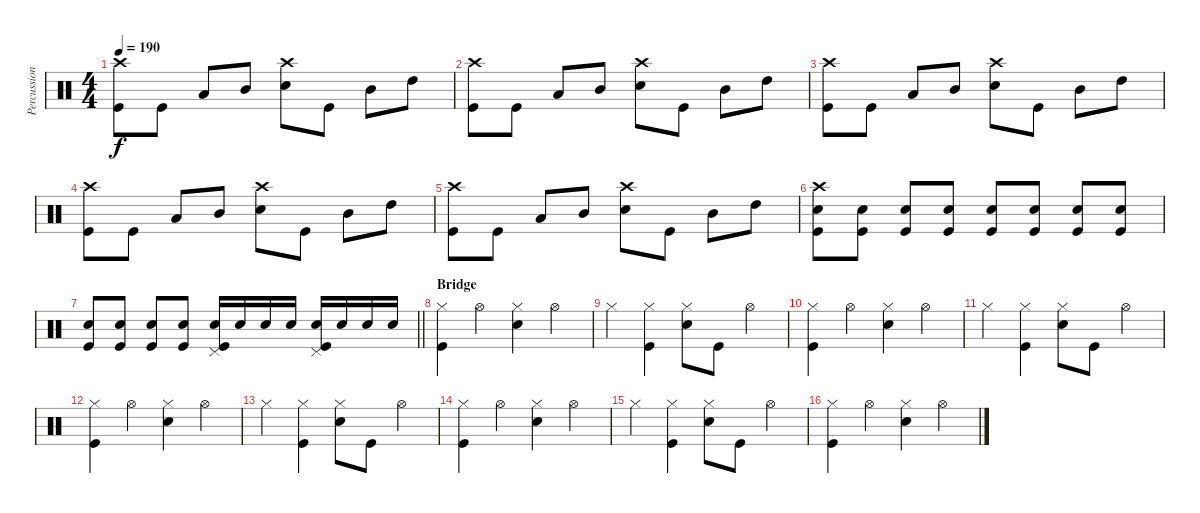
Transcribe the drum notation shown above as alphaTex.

\track ("Percussion" "Percussion") {instrument percussion}
\staff {score}
\articulation defaults
\ts (4 4)
\tempo 190
\clef neutral
\ks c
("Crash high (hit)" "Kick (hit)").8{dy f} "Kick (hit)".8 "Low Tom (hit)".8 "Mid Tom (hit)".8 ("Crash high (hit)" "Snare (hit) 2").8 "Kick (hit)".8 "Mid Tom (hit)".8 "High Tom (hit)".8 |
("Crash high (hit)" "Kick (hit)").8 "Kick (hit)".8 "Low Tom (hit)".8 "Mid Tom (hit)".8 ("Crash high (hit)" "Snare (hit) 2").8 "Kick (hit)".8 "Mid Tom (hit)".8 "High Tom (hit)".8 |
("Crash high (hit)" "Kick (hit)").8 "Kick (hit)".8 "Low Tom (hit)".8 "Mid Tom (hit)".8 ("Crash high (hit)" "Snare (hit) 2").8 "Kick (hit)".8 "Mid Tom (hit)".8 "High Tom (hit)".8 |
("Crash high (hit)" "Kick (hit)").8 "Kick (hit)".8 "Low Tom (hit)".8 "Mid Tom (hit)".8 ("Crash high (hit)" "Snare (hit) 2").8 "Kick (hit)".8 "Mid Tom (hit)".8 "High Tom (hit)".8 |
("Crash high (hit)" "Kick (hit)").8 "Kick (hit)".8 "Low Tom (hit)".8 "Mid Tom (hit)".8 ("Crash high (hit)" "Snare (hit) 2").8 "Kick (hit)".8 "Mid Tom (hit)".8 "High Tom (hit)".8 |
("Crash high (hit)" "Snare (hit) 2" "Kick (hit)").8 ("Snare (hit) 2" "Kick (hit)").8 ("Snare (hit) 2" "Kick (hit)").8 ("Snare (hit) 2" "Kick (hit)").8 ("Snare (hit) 2" "Kick (hit)").8 ("Snare (hit) 2" "Kick (hit)").8 ("Snare (hit) 2" "Kick (hit)").8 ("Snare (hit) 2" "Kick (hit)").8 |
\barLineRight lightlight
("Snare (hit) 2" "Kick (hit)").8 ("Snare (hit) 2" "Kick (hit)").8 ("Snare (hit) 2" "Kick (hit)").8 ("Snare (hit) 2" "Kick (hit)").8 ("Pedal Hi-Hat (hit)" "Snare (hit) 2" "Kick (hit)").16 "Snare (hit) 2".16 "Snare (hit) 2".16 "Snare (hit) 2".16 ("Pedal Hi-Hat (hit)" "Snare (hit) 2" "Kick (hit)").16 "Snare (hit) 2".16 "Snare (hit) 2".16 "Snare (hit) 2".16 |
\section ("" "Bridge")
("Hi-Hat (closed)" "Kick (hit)").4 "Hi-Hat (open)".4 ("Hi-Hat (closed)" "Snare (hit) 2").4 "Hi-Hat (open)".4 |
"Hi-Hat (closed)".4 ("Hi-Hat (closed)" "Kick (hit)").4 ("Hi-Hat (closed)" "Snare (hit) 2").8 "Kick (hit)".8 "Hi-Hat (open)".4 |
("Hi-Hat (closed)" "Kick (hit)").4 "Hi-Hat (open)".4 ("Hi-Hat (closed)" "Snare (hit) 2").4 "Hi-Hat (open)".4 |
"Hi-Hat (closed)".4 ("Hi-Hat (closed)" "Kick (hit)").4 ("Hi-Hat (closed)" "Snare (hit) 2").8 "Kick (hit)".8 "Hi-Hat (open)".4 |
("Hi-Hat (closed)" "Kick (hit)").4 "Hi-Hat (open)".4 ("Hi-Hat (closed)" "Snare (hit) 2").4 "Hi-Hat (open)".4 |
"Hi-Hat (closed)".4 ("Hi-Hat (closed)" "Kick (hit)").4 ("Hi-Hat (closed)" "Snare (hit) 2").8 "Kick (hit)".8 "Hi-Hat (open)".4 |
("Hi-Hat (closed)" "Kick (hit)").4 "Hi-Hat (open)".4 ("Hi-Hat (closed)" "Snare (hit) 2").4 "Hi-Hat (open)".4 |
"Hi-Hat (closed)".4 ("Hi-Hat (closed)" "Kick (hit)").4 ("Hi-Hat (closed)" "Snare (hit) 2").8 "Kick (hit)".8 "Hi-Hat (open)".4 |
("Hi-Hat (closed)" "Kick (hit)").4 "Hi-Hat (open)".4 ("Hi-Hat (closed)" "Snare (hit) 2").4 "Hi-Hat (open)".4
